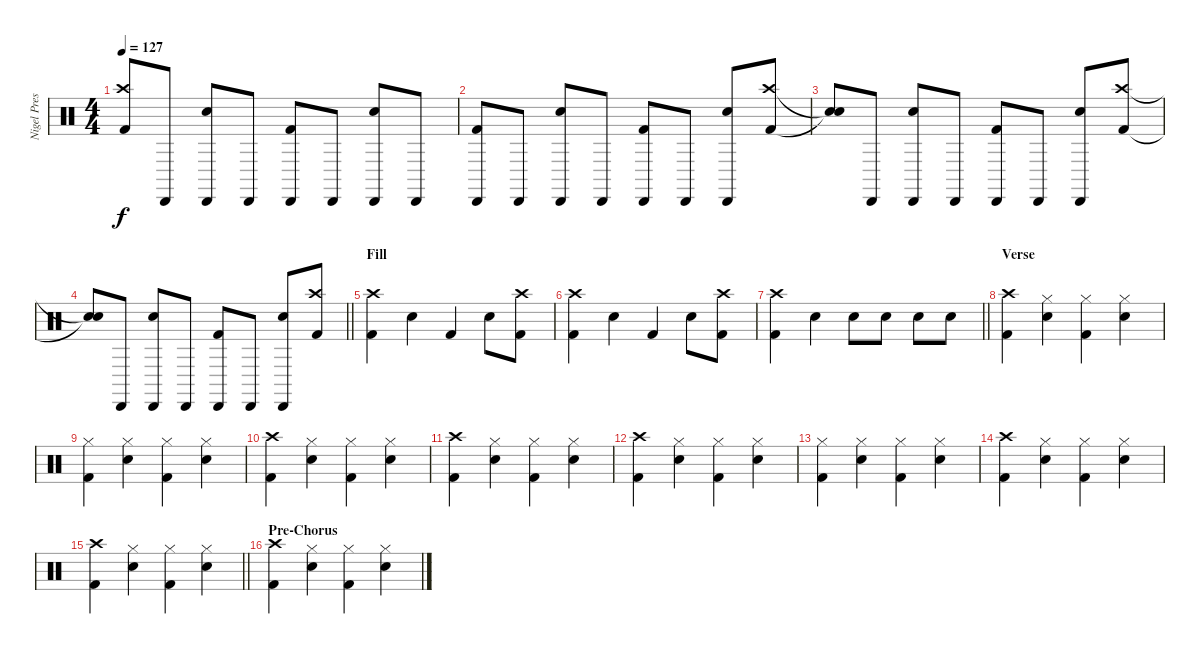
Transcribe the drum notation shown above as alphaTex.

\track ("Nigel Preston" "Nigel Pres") {instrument percussion}
\staff {score}
\articulation defaults
\ts (4 4)
\tempo 127
\clef neutral
\ks c
("Kick (hit) 2" "Crash high (hit)").8{dy f} "Cabasa (hit)".8 ("Snare (hit) 2" "Cabasa (hit)").8 "Cabasa (hit)".8 ("Kick (hit) 2" "Cabasa (hit)").8 "Cabasa (hit)".8 ("Snare (hit) 2" "Cabasa (hit)").8 "Cabasa (hit)".8 |
("Kick (hit) 2" "Cabasa (hit)").8 "Cabasa (hit)".8 ("Snare (hit) 2" "Cabasa (hit)").8 "Cabasa (hit)".8 ("Kick (hit) 2" "Cabasa (hit)").8 "Cabasa (hit)".8 ("Snare (hit) 2" "Cabasa (hit)").8 ("Kick (hit) 2" "Crash high (hit)").8 |
("Snare (hit)"{t} "Snare (hit)"{t}).8 "Cabasa (hit)".8 ("Snare (hit) 2" "Cabasa (hit)").8 "Cabasa (hit)".8 ("Kick (hit) 2" "Cabasa (hit)").8 "Cabasa (hit)".8 ("Snare (hit) 2" "Cabasa (hit)").8 ("Kick (hit) 2" "Crash high (hit)").8 |
\barLineRight lightlight
("Snare (hit)"{t} "Snare (hit)"{t}).8 "Cabasa (hit)".8 ("Snare (hit) 2" "Cabasa (hit)").8 "Cabasa (hit)".8 ("Kick (hit) 2" "Cabasa (hit)").8 "Cabasa (hit)".8 ("Snare (hit) 2" "Cabasa (hit)").8 ("Kick (hit) 2" "Crash high (hit)").8 |
\section ("" "Fill")
("Kick (hit) 2" "Crash high (hit)").4 "Snare (hit) 2".4 "Kick (hit) 2".4 "Snare (hit) 2".8 ("Kick (hit) 2" "Crash high (hit)").8 |
("Kick (hit) 2" "Crash high (hit)").4 "Snare (hit) 2".4 "Kick (hit) 2".4 "Snare (hit) 2".8 ("Kick (hit) 2" "Crash high (hit)").8 |
\barLineRight lightlight
("Kick (hit) 2" "Crash high (hit)").4 "Snare (hit) 2".4 "Snare (hit) 2".8 "Snare (hit) 2".8 "Snare (hit) 2".8 "Snare (hit) 2".8 |
\section ("" "Verse")
("Kick (hit) 2" "Crash high (hit)").4 ("Snare (hit) 2" "Hi-Hat (closed)").4 ("Kick (hit) 2" "Hi-Hat (closed)").4 ("Snare (hit) 2" "Hi-Hat (closed)").4 |
("Kick (hit) 2" "Hi-Hat (closed)").4 ("Snare (hit) 2" "Hi-Hat (closed)").4 ("Kick (hit) 2" "Hi-Hat (closed)").4 ("Snare (hit) 2" "Hi-Hat (closed)").4 |
("Kick (hit) 2" "Crash high (hit)").4 ("Snare (hit) 2" "Hi-Hat (closed)").4 ("Kick (hit) 2" "Hi-Hat (closed)").4 ("Snare (hit) 2" "Hi-Hat (closed)").4 |
("Kick (hit) 2" "Crash high (hit)").4 ("Snare (hit) 2" "Hi-Hat (closed)").4 ("Kick (hit) 2" "Hi-Hat (closed)").4 ("Snare (hit) 2" "Hi-Hat (closed)").4 |
("Kick (hit) 2" "Crash high (hit)").4 ("Snare (hit) 2" "Hi-Hat (closed)").4 ("Kick (hit) 2" "Hi-Hat (closed)").4 ("Snare (hit) 2" "Hi-Hat (closed)").4 |
("Kick (hit) 2" "Hi-Hat (closed)").4 ("Snare (hit) 2" "Hi-Hat (closed)").4 ("Kick (hit) 2" "Hi-Hat (closed)").4 ("Snare (hit) 2" "Hi-Hat (closed)").4 |
("Kick (hit) 2" "Crash high (hit)").4 ("Snare (hit) 2" "Hi-Hat (closed)").4 ("Kick (hit) 2" "Hi-Hat (closed)").4 ("Snare (hit) 2" "Hi-Hat (closed)").4 |
\barLineRight lightlight
("Kick (hit) 2" "Crash high (hit)").4 ("Snare (hit) 2" "Hi-Hat (closed)").4 ("Kick (hit) 2" "Hi-Hat (closed)").4 ("Snare (hit) 2" "Hi-Hat (closed)").4 |
\section ("" "Pre-Chorus")
("Kick (hit) 2" "Crash high (hit)").4 ("Snare (hit) 2" "Hi-Hat (closed)").4 ("Kick (hit) 2" "Hi-Hat (closed)").4 ("Snare (hit) 2" "Hi-Hat (closed)").4
